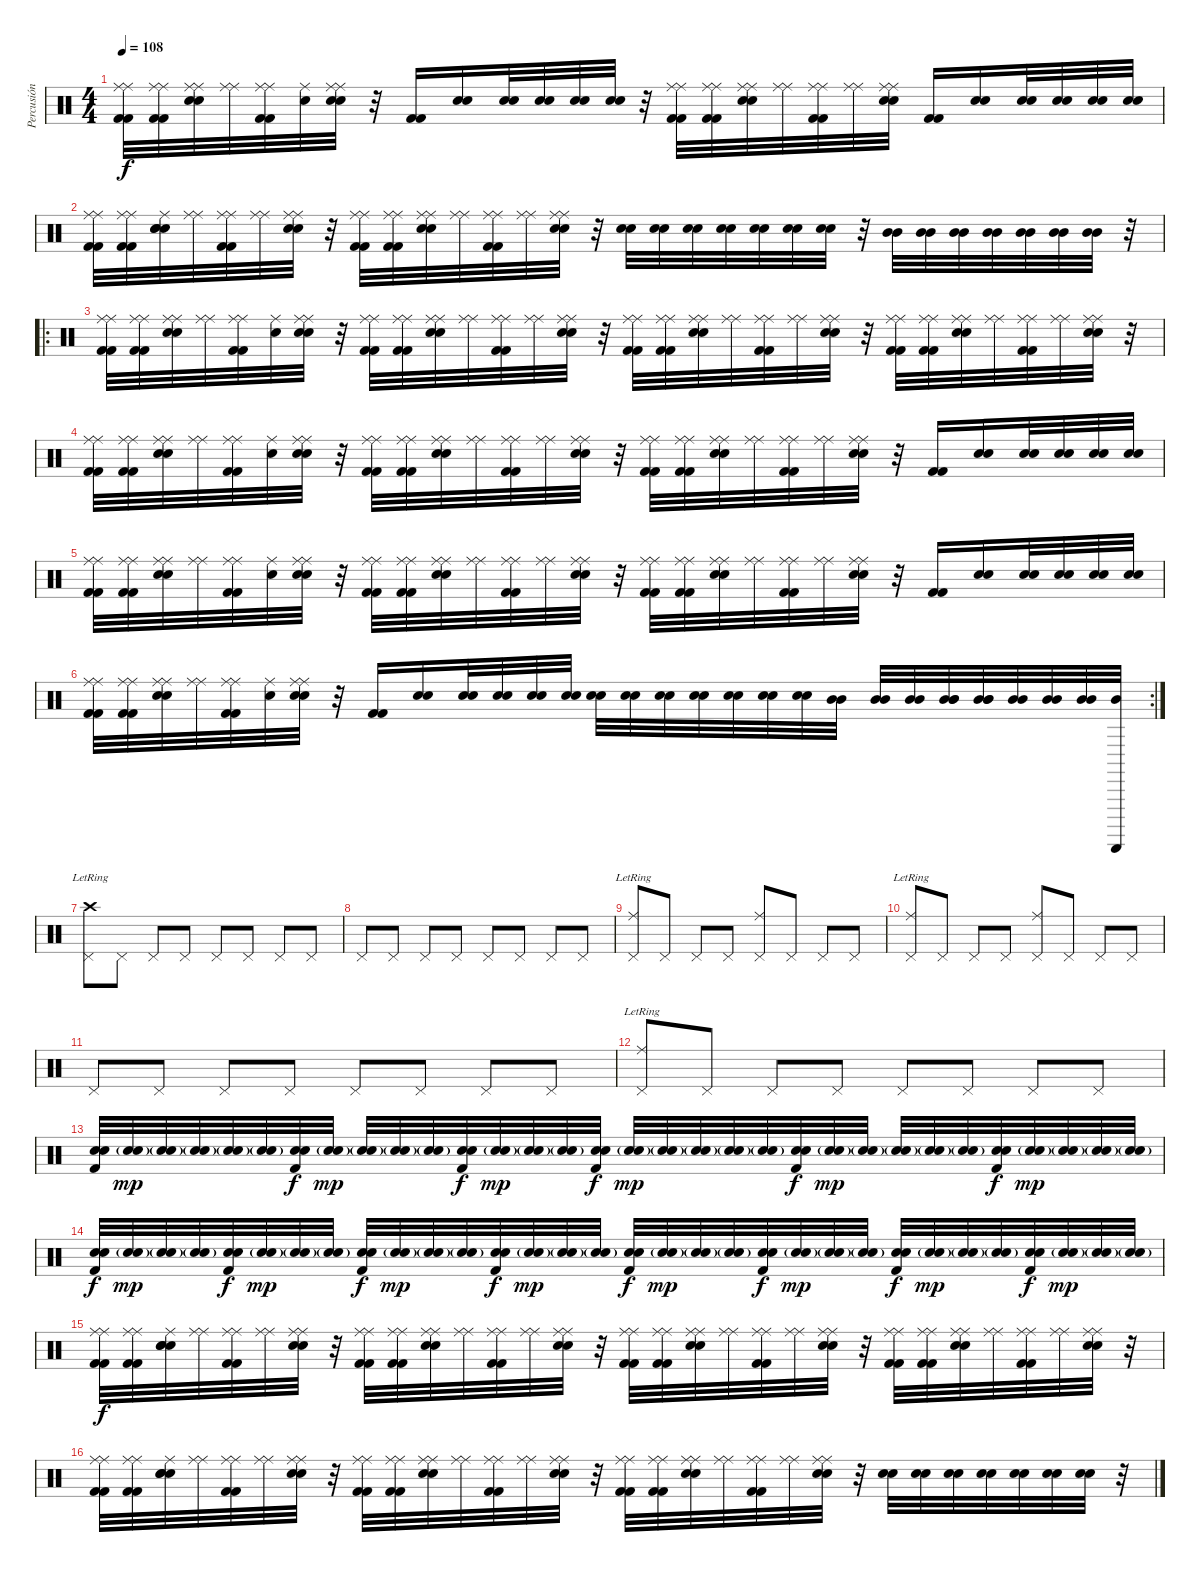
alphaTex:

\track ("Percusión" "Percusión") {instrument percussion}
\staff {score}
\articulation defaults
\ts (4 4)
\tempo 108
\clef neutral
\ks c
("Kick (hit) 2" "Kick (hit) 2" "Ride (middle)" "Ride (middle)").32{dy f} ("Kick (hit) 2" "Kick (hit) 2" "Ride (middle)" "Ride (middle)").32 ("Snare (hit) 2" "Snare (hit) 2" "Ride (middle)" "Ride (middle)").32 ("Ride (middle)" "Ride (middle)").32 ("Kick (hit) 2" "Kick (hit) 2" "Ride (middle)" "Ride (middle)").32 ("Ride (middle)" "Snare (hit)").32 ("Snare (hit) 2" "Snare (hit) 2" "Ride (middle)" "Ride (middle)").32 r.32 ("Kick (hit) 2" "Kick (hit) 2").16 ("Snare (hit) 2" "Snare (hit) 2").16 ("Snare (hit) 2" "Snare (hit) 2").32 ("Snare (hit) 2" "Snare (hit) 2").32 ("Snare (hit) 2" "Snare (hit) 2").32 ("Snare (hit) 2" "Snare (hit) 2").32 r.32 ("Kick (hit) 2" "Kick (hit) 2" "Ride (middle)" "Ride (middle)").32 ("Kick (hit) 2" "Kick (hit) 2" "Ride (middle)" "Ride (middle)").32 ("Snare (hit) 2" "Snare (hit) 2" "Ride (middle)" "Ride (middle)").32 ("Ride (middle)" "Ride (middle)").32 ("Kick (hit) 2" "Kick (hit) 2" "Ride (middle)" "Ride (middle)").32 ("Ride (middle)" "Ride (middle)").32 ("Snare (hit) 2" "Snare (hit) 2" "Ride (middle)" "Ride (middle)").32 ("Kick (hit) 2" "Kick (hit) 2").16 ("Snare (hit) 2" "Snare (hit) 2").16 ("Snare (hit) 2" "Snare (hit) 2").32 ("Snare (hit) 2" "Snare (hit) 2").32 ("Snare (hit) 2" "Snare (hit) 2").32 ("Snare (hit) 2" "Snare (hit) 2").32 |
("Kick (hit) 2" "Kick (hit) 2" "Ride (middle)" "Ride (middle)").32 ("Kick (hit) 2" "Kick (hit) 2" "Ride (middle)" "Ride (middle)").32 ("Snare (hit) 2" "Snare (hit) 2" "Ride (middle)" "Snare (hit)").32 ("Ride (middle)" "Ride (middle)").32 ("Kick (hit) 2" "Kick (hit) 2" "Ride (middle)" "Ride (middle)").32 ("Ride (middle)" "Ride (middle)").32 ("Snare (hit) 2" "Snare (hit) 2" "Ride (middle)" "Ride (middle)").32 r.32 ("Kick (hit) 2" "Kick (hit) 2" "Ride (middle)" "Ride (middle)").32 ("Kick (hit) 2" "Kick (hit) 2" "Ride (middle)" "Ride (middle)").32 ("Snare (hit) 2" "Snare (hit) 2" "Ride (middle)" "Ride (middle)").32 ("Ride (middle)" "Ride (middle)").32 ("Kick (hit) 2" "Kick (hit) 2" "Ride (middle)" "Ride (middle)").32 ("Ride (middle)" "Ride (middle)").32 ("Snare (hit) 2" "Snare (hit) 2" "Ride (middle)" "Ride (middle)").32 r.32 ("Snare (hit) 2" "Snare (hit) 2").32 ("Snare (hit) 2" "Snare (hit) 2").32 ("Snare (hit) 2" "Snare (hit) 2").32 ("Snare (hit) 2" "Snare (hit) 2").32 ("Snare (hit) 2" "Snare (hit) 2").32 ("Snare (hit) 2" "Snare (hit) 2").32 ("Snare (hit) 2" "Snare (hit) 2").32 r.32 ("Mid Tom (hit)" "Mid Tom (hit)").32 ("Mid Tom (hit)" "Mid Tom (hit)").32 ("Mid Tom (hit)" "Mid Tom (hit)").32 ("Mid Tom (hit)" "Mid Tom (hit)").32 ("Mid Tom (hit)" "Mid Tom (hit)").32 ("Mid Tom (hit)" "Mid Tom (hit)").32 ("Mid Tom (hit)" "Mid Tom (hit)").32 r.32 |
\ro
("Kick (hit) 2" "Kick (hit) 2" "Ride (middle)" "Ride (middle)").32 ("Kick (hit) 2" "Kick (hit) 2" "Ride (middle)" "Ride (middle)").32 ("Snare (hit) 2" "Snare (hit) 2" "Ride (middle)" "Ride (middle)").32 ("Ride (middle)" "Ride (middle)").32 ("Kick (hit) 2" "Kick (hit) 2" "Ride (middle)" "Ride (middle)").32 ("Ride (middle)" "Snare (hit)").32 ("Snare (hit) 2" "Snare (hit) 2" "Ride (middle)" "Ride (middle)").32 r.32 ("Kick (hit) 2" "Kick (hit) 2" "Ride (middle)" "Ride (middle)").32 ("Kick (hit) 2" "Kick (hit) 2" "Ride (middle)" "Ride (middle)").32 ("Snare (hit) 2" "Snare (hit) 2" "Ride (middle)" "Ride (middle)").32 ("Ride (middle)" "Ride (middle)").32 ("Kick (hit) 2" "Kick (hit) 2" "Ride (middle)" "Ride (middle)").32 ("Ride (middle)" "Ride (middle)").32 ("Snare (hit) 2" "Snare (hit) 2" "Ride (middle)" "Ride (middle)").32 r.32 ("Kick (hit) 2" "Kick (hit) 2" "Ride (middle)" "Ride (middle)").32 ("Kick (hit) 2" "Kick (hit) 2" "Ride (middle)" "Ride (middle)").32 ("Snare (hit) 2" "Snare (hit) 2" "Ride (middle)" "Ride (middle)").32 ("Ride (middle)" "Ride (middle)").32 ("Kick (hit) 2" "Kick (hit) 2" "Ride (middle)" "Ride (middle)").32 ("Ride (middle)" "Ride (middle)").32 ("Snare (hit) 2" "Snare (hit) 2" "Ride (middle)" "Ride (middle)").32 r.32 ("Kick (hit) 2" "Kick (hit) 2" "Ride (middle)" "Ride (middle)").32 ("Kick (hit) 2" "Kick (hit) 2" "Ride (middle)" "Ride (middle)").32 ("Snare (hit) 2" "Snare (hit) 2" "Ride (middle)" "Ride (middle)").32 ("Ride (middle)" "Ride (middle)").32 ("Kick (hit) 2" "Kick (hit) 2" "Ride (middle)" "Ride (middle)").32 ("Ride (middle)" "Ride (middle)").32 ("Snare (hit) 2" "Snare (hit) 2" "Ride (middle)" "Ride (middle)").32 r.32 |
("Kick (hit) 2" "Kick (hit) 2" "Ride (middle)" "Ride (middle)").32 ("Kick (hit) 2" "Kick (hit) 2" "Ride (middle)" "Ride (middle)").32 ("Snare (hit) 2" "Snare (hit) 2" "Ride (middle)" "Ride (middle)").32 ("Ride (middle)" "Ride (middle)").32 ("Kick (hit) 2" "Kick (hit) 2" "Ride (middle)" "Ride (middle)").32 ("Ride (middle)" "Snare (hit)").32 ("Snare (hit) 2" "Snare (hit) 2" "Ride (middle)" "Ride (middle)").32 r.32 ("Kick (hit) 2" "Kick (hit) 2" "Ride (middle)" "Ride (middle)").32 ("Kick (hit) 2" "Kick (hit) 2" "Ride (middle)" "Ride (middle)").32 ("Snare (hit) 2" "Snare (hit) 2" "Ride (middle)" "Ride (middle)").32 ("Ride (middle)" "Ride (middle)").32 ("Kick (hit) 2" "Kick (hit) 2" "Ride (middle)" "Ride (middle)").32 ("Ride (middle)" "Ride (middle)").32 ("Snare (hit) 2" "Snare (hit) 2" "Ride (middle)" "Ride (middle)").32 r.32 ("Kick (hit) 2" "Kick (hit) 2" "Ride (middle)" "Ride (middle)").32 ("Kick (hit) 2" "Kick (hit) 2" "Ride (middle)" "Ride (middle)").32 ("Snare (hit) 2" "Snare (hit) 2" "Ride (middle)" "Ride (middle)").32 ("Ride (middle)" "Ride (middle)").32 ("Kick (hit) 2" "Kick (hit) 2" "Ride (middle)" "Ride (middle)").32 ("Ride (middle)" "Ride (middle)").32 ("Snare (hit) 2" "Snare (hit) 2" "Ride (middle)" "Ride (middle)").32 r.32 ("Kick (hit) 2" "Kick (hit) 2").16 ("Snare (hit) 2" "Snare (hit) 2").16 ("Snare (hit) 2" "Snare (hit) 2").32 ("Snare (hit) 2" "Snare (hit) 2").32 ("Snare (hit) 2" "Snare (hit) 2").32 ("Snare (hit) 2" "Snare (hit) 2").32 |
("Kick (hit) 2" "Kick (hit) 2" "Ride (middle)" "Ride (middle)").32 ("Kick (hit) 2" "Kick (hit) 2" "Ride (middle)" "Ride (middle)").32 ("Snare (hit) 2" "Snare (hit) 2" "Ride (middle)" "Ride (middle)").32 ("Ride (middle)" "Ride (middle)").32 ("Kick (hit) 2" "Kick (hit) 2" "Ride (middle)" "Ride (middle)").32 ("Ride (middle)" "Snare (hit)").32 ("Snare (hit) 2" "Snare (hit) 2" "Ride (middle)" "Ride (middle)").32 r.32 ("Kick (hit) 2" "Kick (hit) 2" "Ride (middle)" "Ride (middle)").32 ("Kick (hit) 2" "Kick (hit) 2" "Ride (middle)" "Ride (middle)").32 ("Snare (hit) 2" "Snare (hit) 2" "Ride (middle)" "Ride (middle)").32 ("Ride (middle)" "Ride (middle)").32 ("Kick (hit) 2" "Kick (hit) 2" "Ride (middle)" "Ride (middle)").32 ("Ride (middle)" "Ride (middle)").32 ("Snare (hit) 2" "Snare (hit) 2" "Ride (middle)" "Ride (middle)").32 r.32 ("Kick (hit) 2" "Kick (hit) 2" "Ride (middle)" "Ride (middle)").32 ("Kick (hit) 2" "Kick (hit) 2" "Ride (middle)" "Ride (middle)").32 ("Snare (hit) 2" "Snare (hit) 2" "Ride (middle)" "Ride (middle)").32 ("Ride (middle)" "Ride (middle)").32 ("Kick (hit) 2" "Kick (hit) 2" "Ride (middle)" "Ride (middle)").32 ("Ride (middle)" "Ride (middle)").32 ("Snare (hit) 2" "Snare (hit) 2" "Ride (middle)" "Ride (middle)").32 r.32 ("Kick (hit) 2" "Kick (hit) 2").16 ("Snare (hit) 2" "Snare (hit) 2").16 ("Snare (hit) 2" "Snare (hit) 2").32 ("Snare (hit) 2" "Snare (hit) 2").32 ("Snare (hit) 2" "Snare (hit) 2").32 ("Snare (hit) 2" "Snare (hit) 2").32 |
\rc 2
("Kick (hit) 2" "Kick (hit) 2" "Ride (middle)" "Ride (middle)").32 ("Kick (hit) 2" "Kick (hit) 2" "Ride (middle)" "Ride (middle)").32 ("Snare (hit) 2" "Snare (hit) 2" "Ride (middle)" "Ride (middle)").32 ("Ride (middle)" "Ride (middle)").32 ("Kick (hit) 2" "Kick (hit) 2" "Ride (middle)" "Ride (middle)").32 ("Ride (middle)" "Snare (hit)").32 ("Snare (hit) 2" "Snare (hit) 2" "Ride (middle)" "Ride (middle)").32 r.32 ("Kick (hit) 2" "Kick (hit) 2").16 ("Snare (hit) 2" "Snare (hit) 2").16 ("Snare (hit) 2" "Snare (hit) 2").32 ("Snare (hit) 2" "Snare (hit) 2").32 ("Snare (hit) 2" "Snare (hit) 2").32 ("Snare (hit) 2" "Snare (hit) 2").32 ("Snare (hit) 2" "Snare (hit) 2").32 ("Snare (hit) 2" "Snare (hit) 2").32 ("Snare (hit) 2" "Snare (hit) 2").32 ("Snare (hit) 2" "Snare (hit) 2").32 ("Snare (hit) 2" "Snare (hit) 2").32 ("Snare (hit) 2" "Snare (hit) 2").32 ("Snare (hit) 2" "Snare (hit) 2").32 ("Mid Tom (hit)" "Mid Tom (hit)").32 ("Mid Tom (hit)" "Mid Tom (hit)").32 ("Mid Tom (hit)" "Mid Tom (hit)").32 ("Mid Tom (hit)" "Mid Tom (hit)" "Mid Tom (hit)").32 ("Mid Tom (hit)" "Mid Tom (hit)" "Mid Tom (hit)").32 ("Mid Tom (hit)" "Mid Tom (hit)").32 ("Mid Tom (hit)" "Mid Tom (hit)").32 ("Mid Tom (hit)" "Mid Tom (hit)").32 ("Guiro (scrap-return)" "Mid Tom (hit)").32 |
("Crash high (hit)"{lr} "Pedal Hi-Hat (hit)").8 "Pedal Hi-Hat (hit)".8 "Pedal Hi-Hat (hit)".8 "Pedal Hi-Hat (hit)".8 "Pedal Hi-Hat (hit)".8 "Pedal Hi-Hat (hit)".8 "Pedal Hi-Hat (hit)".8 "Pedal Hi-Hat (hit)".8 |
"Pedal Hi-Hat (hit)".8 "Pedal Hi-Hat (hit)".8 "Pedal Hi-Hat (hit)".8 "Pedal Hi-Hat (hit)".8 "Pedal Hi-Hat (hit)".8 "Pedal Hi-Hat (hit)".8 "Pedal Hi-Hat (hit)".8 "Pedal Hi-Hat (hit)".8 |
("Ride (middle)"{lr} "Pedal Hi-Hat (hit)").8 "Pedal Hi-Hat (hit)".8 "Pedal Hi-Hat (hit)".8 "Pedal Hi-Hat (hit)".8 ("Ride (middle)" "Pedal Hi-Hat (hit)").8 "Pedal Hi-Hat (hit)".8 "Pedal Hi-Hat (hit)".8 "Pedal Hi-Hat (hit)".8 |
("Ride (middle)"{lr} "Pedal Hi-Hat (hit)").8 "Pedal Hi-Hat (hit)".8 "Pedal Hi-Hat (hit)".8 "Pedal Hi-Hat (hit)".8 ("Ride (middle)" "Pedal Hi-Hat (hit)").8 "Pedal Hi-Hat (hit)".8 "Pedal Hi-Hat (hit)".8 "Pedal Hi-Hat (hit)".8 |
"Pedal Hi-Hat (hit)".8 "Pedal Hi-Hat (hit)".8 "Pedal Hi-Hat (hit)".8 "Pedal Hi-Hat (hit)".8 "Pedal Hi-Hat (hit)".8 "Pedal Hi-Hat (hit)".8 "Pedal Hi-Hat (hit)".8 "Pedal Hi-Hat (hit)".8 |
("Ride (middle)"{lr} "Pedal Hi-Hat (hit)").8 "Pedal Hi-Hat (hit)".8 "Pedal Hi-Hat (hit)".8 "Pedal Hi-Hat (hit)".8 "Pedal Hi-Hat (hit)".8 "Pedal Hi-Hat (hit)".8 "Pedal Hi-Hat (hit)".8 "Pedal Hi-Hat (hit)".8 |
("Snare (hit) 2" "Snare (hit) 2" "Kick (hit) 2").32 ("Snare (hit) 2"{g} "Snare (hit) 2"{g}).32{dy mp} ("Snare (hit) 2"{g} "Snare (hit) 2"{g}).32 ("Snare (hit) 2"{g} "Snare (hit) 2"{g}).32 ("Snare (hit) 2"{g} "Snare (hit) 2"{g}).32 ("Snare (hit) 2"{g} "Snare (hit) 2"{g}).32 ("Snare (hit) 2" "Snare (hit) 2" "Kick (hit) 2").32{dy f} ("Snare (hit) 2"{g} "Snare (hit) 2"{g}).32{dy mp} ("Snare (hit) 2"{g} "Snare (hit) 2"{g}).32 ("Snare (hit) 2"{g} "Snare (hit) 2"{g}).32 ("Snare (hit) 2"{g} "Snare (hit) 2"{g}).32 ("Snare (hit) 2" "Snare (hit) 2" "Kick (hit) 2").32{dy f} ("Snare (hit) 2"{g} "Snare (hit) 2"{g}).32{dy mp} ("Snare (hit) 2"{g} "Snare (hit) 2"{g}).32 ("Snare (hit) 2"{g} "Snare (hit) 2"{g}).32 ("Snare (hit) 2" "Snare (hit) 2" "Kick (hit) 2").32{dy f} ("Snare (hit) 2"{g} "Snare (hit) 2"{g}).32{dy mp} ("Snare (hit) 2"{g} "Snare (hit) 2"{g}).32 ("Snare (hit) 2"{g} "Snare (hit) 2"{g}).32 ("Snare (hit) 2"{g} "Snare (hit) 2"{g}).32 ("Snare (hit) 2"{g} "Snare (hit) 2"{g}).32 ("Snare (hit) 2" "Snare (hit) 2" "Kick (hit) 2").32{dy f} ("Snare (hit) 2"{g} "Snare (hit) 2"{g}).32{dy mp} ("Snare (hit) 2"{g} "Snare (hit) 2"{g}).32 ("Snare (hit) 2"{g} "Snare (hit) 2"{g}).32 ("Snare (hit) 2"{g} "Snare (hit) 2"{g}).32 ("Snare (hit) 2"{g} "Snare (hit) 2"{g}).32 ("Snare (hit) 2" "Snare (hit) 2" "Kick (hit) 2").32{dy f} ("Snare (hit) 2"{g} "Snare (hit) 2"{g}).32{dy mp} ("Snare (hit) 2"{g} "Snare (hit) 2"{g}).32 ("Snare (hit) 2"{g} "Snare (hit) 2"{g}).32 ("Snare (hit) 2"{g} "Snare (hit) 2"{g}).32 |
("Snare (hit) 2" "Snare (hit) 2" "Kick (hit) 2").32{dy f} ("Snare (hit) 2"{g} "Snare (hit) 2"{g}).32{dy mp} ("Snare (hit) 2"{g} "Snare (hit) 2"{g}).32 ("Snare (hit) 2"{g} "Snare (hit) 2"{g}).32 ("Snare (hit) 2" "Snare (hit) 2" "Kick (hit) 2").32{dy f} ("Snare (hit) 2"{g} "Snare (hit) 2"{g}).32{dy mp} ("Snare (hit) 2"{g} "Snare (hit) 2"{g}).32 ("Snare (hit) 2"{g} "Snare (hit) 2"{g}).32 ("Snare (hit) 2" "Snare (hit) 2" "Kick (hit) 2").32{dy f} ("Snare (hit) 2"{g} "Snare (hit) 2"{g}).32{dy mp} ("Snare (hit) 2"{g} "Snare (hit) 2"{g}).32 ("Snare (hit) 2"{g} "Snare (hit) 2"{g}).32 ("Snare (hit) 2" "Snare (hit) 2" "Kick (hit) 2").32{dy f} ("Snare (hit) 2"{g} "Snare (hit) 2"{g}).32{dy mp} ("Snare (hit) 2"{g} "Snare (hit) 2"{g}).32 ("Snare (hit) 2"{g} "Snare (hit) 2"{g}).32 ("Snare (hit) 2" "Snare (hit) 2" "Kick (hit) 2").32{dy f} ("Snare (hit) 2"{g} "Snare (hit) 2"{g}).32{dy mp} ("Snare (hit) 2"{g} "Snare (hit) 2"{g}).32 ("Snare (hit) 2"{g} "Snare (hit) 2"{g}).32 ("Snare (hit) 2" "Snare (hit) 2" "Kick (hit) 2").32{dy f} ("Snare (hit) 2"{g} "Snare (hit) 2"{g}).32{dy mp} ("Snare (hit) 2"{g} "Snare (hit) 2"{g}).32 ("Snare (hit) 2"{g} "Snare (hit) 2"{g}).32 ("Snare (hit) 2" "Snare (hit) 2" "Kick (hit) 2").32{dy f} ("Snare (hit) 2"{g} "Snare (hit) 2"{g}).32{dy mp} ("Snare (hit) 2"{g} "Snare (hit) 2"{g}).32 ("Snare (hit) 2"{g} "Snare (hit) 2"{g}).32 ("Snare (hit) 2" "Snare (hit) 2" "Kick (hit) 2").32{dy f} ("Snare (hit) 2"{g} "Snare (hit) 2"{g}).32{dy mp} ("Snare (hit) 2"{g} "Snare (hit) 2"{g}).32 ("Snare (hit) 2"{g} "Snare (hit) 2"{g}).32 |
("Kick (hit) 2" "Kick (hit) 2" "Ride (middle)" "Ride (middle)").32{dy f} ("Kick (hit) 2" "Kick (hit) 2" "Ride (middle)" "Ride (middle)").32 ("Snare (hit) 2" "Snare (hit) 2" "Ride (middle)" "Snare (hit)").32 ("Ride (middle)" "Ride (middle)").32 ("Kick (hit) 2" "Kick (hit) 2" "Ride (middle)" "Ride (middle)").32 ("Ride (middle)" "Ride (middle)").32 ("Snare (hit) 2" "Snare (hit) 2" "Ride (middle)" "Ride (middle)").32 r.32 ("Kick (hit) 2" "Kick (hit) 2" "Ride (middle)" "Ride (middle)").32 ("Kick (hit) 2" "Kick (hit) 2" "Ride (middle)" "Ride (middle)").32 ("Snare (hit) 2" "Snare (hit) 2" "Ride (middle)" "Ride (middle)").32 ("Ride (middle)" "Ride (middle)").32 ("Kick (hit) 2" "Kick (hit) 2" "Ride (middle)" "Ride (middle)").32 ("Ride (middle)" "Ride (middle)").32 ("Snare (hit) 2" "Snare (hit) 2" "Ride (middle)" "Ride (middle)").32 r.32 ("Kick (hit) 2" "Kick (hit) 2" "Ride (middle)" "Ride (middle)").32 ("Kick (hit) 2" "Kick (hit) 2" "Ride (middle)" "Ride (middle)").32 ("Snare (hit) 2" "Snare (hit) 2" "Ride (middle)" "Ride (middle)").32 ("Ride (middle)" "Ride (middle)").32 ("Kick (hit) 2" "Kick (hit) 2" "Ride (middle)" "Ride (middle)").32 ("Ride (middle)" "Ride (middle)").32 ("Snare (hit) 2" "Snare (hit) 2" "Ride (middle)" "Ride (middle)").32 r.32 ("Kick (hit) 2" "Kick (hit) 2" "Ride (middle)" "Ride (middle)").32 ("Kick (hit) 2" "Kick (hit) 2" "Ride (middle)" "Ride (middle)").32 ("Snare (hit) 2" "Snare (hit) 2" "Ride (middle)" "Ride (middle)").32 ("Ride (middle)" "Ride (middle)").32 ("Kick (hit) 2" "Kick (hit) 2" "Ride (middle)" "Ride (middle)").32 ("Ride (middle)" "Ride (middle)").32 ("Snare (hit) 2" "Snare (hit) 2" "Ride (middle)" "Ride (middle)").32 r.32 |
("Kick (hit) 2" "Kick (hit) 2" "Ride (middle)" "Ride (middle)").32 ("Kick (hit) 2" "Kick (hit) 2" "Ride (middle)" "Ride (middle)").32 ("Snare (hit) 2" "Snare (hit) 2" "Ride (middle)" "Snare (hit)").32 ("Ride (middle)" "Ride (middle)").32 ("Kick (hit) 2" "Kick (hit) 2" "Ride (middle)" "Ride (middle)").32 ("Ride (middle)" "Ride (middle)").32 ("Snare (hit) 2" "Snare (hit) 2" "Ride (middle)" "Ride (middle)").32 r.32 ("Kick (hit) 2" "Kick (hit) 2" "Ride (middle)" "Ride (middle)").32 ("Kick (hit) 2" "Kick (hit) 2" "Ride (middle)" "Ride (middle)").32 ("Snare (hit) 2" "Snare (hit) 2" "Ride (middle)" "Ride (middle)").32 ("Ride (middle)" "Ride (middle)").32 ("Kick (hit) 2" "Kick (hit) 2" "Ride (middle)" "Ride (middle)").32 ("Ride (middle)" "Ride (middle)").32 ("Snare (hit) 2" "Snare (hit) 2" "Ride (middle)" "Ride (middle)").32 r.32 ("Kick (hit) 2" "Kick (hit) 2" "Ride (middle)" "Ride (middle)").32 ("Kick (hit) 2" "Kick (hit) 2" "Ride (middle)" "Ride (middle)").32 ("Snare (hit) 2" "Snare (hit) 2" "Ride (middle)" "Ride (middle)").32 ("Ride (middle)" "Ride (middle)").32 ("Kick (hit) 2" "Kick (hit) 2" "Ride (middle)" "Ride (middle)").32 ("Ride (middle)" "Ride (middle)").32 ("Snare (hit) 2" "Snare (hit) 2" "Ride (middle)" "Ride (middle)").32 r.32 ("Snare (hit) 2" "Snare (hit) 2").32 ("Snare (hit) 2" "Snare (hit) 2").32 ("Snare (hit) 2" "Snare (hit) 2").32 ("Snare (hit) 2" "Snare (hit) 2").32 ("Snare (hit) 2" "Snare (hit) 2").32 ("Snare (hit) 2" "Snare (hit) 2").32 ("Snare (hit) 2" "Snare (hit) 2").32 r.32
